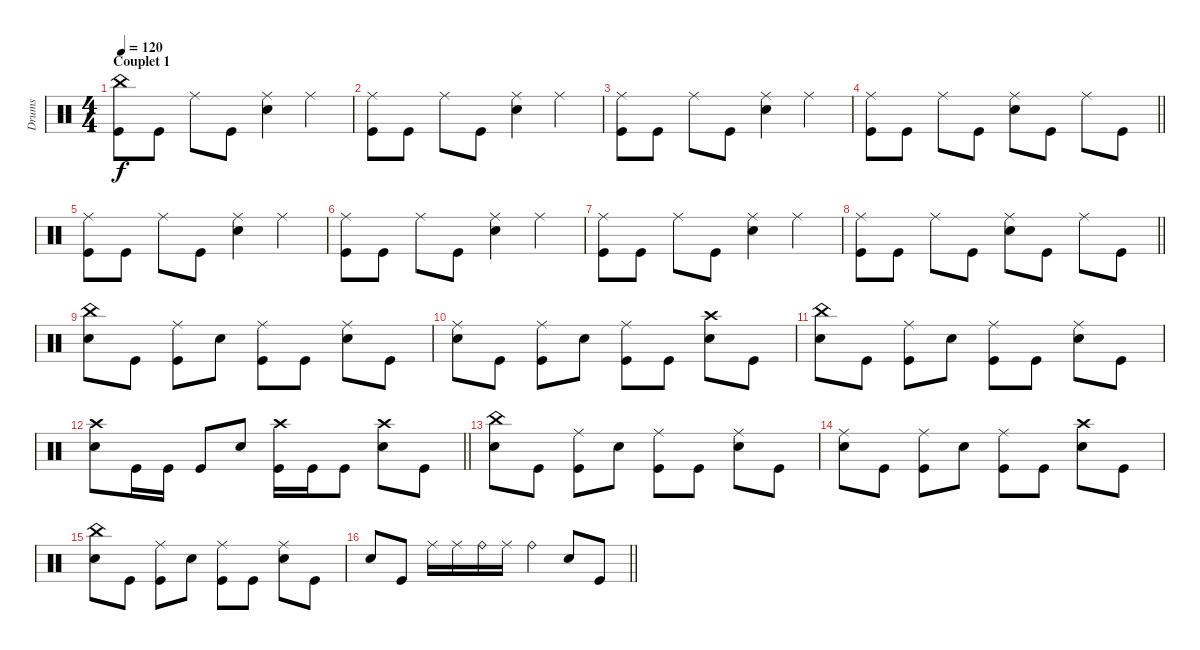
\track ("Drums" "Drums") {instrument percussion}
\staff {score}
\articulation defaults
\ts (4 4)
\section ("" "Couplet 1")
\tempo 120
\clef neutral
\ks c
("China (hit)" "Kick (hit)").8{dy f} "Kick (hit)".8 "Ride (middle)".8 "Kick (hit)".8 ("Ride (middle)" "Electric Snare (hit)").4 "Ride (middle)".4 |
("Ride (middle)" "Kick (hit)").8 "Kick (hit)".8 "Ride (middle)".8 "Kick (hit)".8 ("Ride (middle)" "Electric Snare (hit)").4 "Ride (middle)".4 |
("Ride (middle)" "Kick (hit)").8 "Kick (hit)".8 "Ride (middle)".8 "Kick (hit)".8 ("Ride (middle)" "Electric Snare (hit)").4 "Ride (middle)".4 |
\barLineRight lightlight
("Ride (middle)" "Kick (hit)").8 "Kick (hit)".8 "Ride (middle)".8 "Kick (hit)".8 ("Ride (middle)" "Electric Snare (hit)").8 "Kick (hit)".8 "Ride (middle)".8 "Kick (hit)".8 |
("Ride (middle)" "Kick (hit)").8 "Kick (hit)".8 "Ride (middle)".8 "Kick (hit)".8 ("Ride (middle)" "Electric Snare (hit)").4 "Ride (middle)".4 |
("Ride (middle)" "Kick (hit)").8 "Kick (hit)".8 "Ride (middle)".8 "Kick (hit)".8 ("Ride (middle)" "Electric Snare (hit)").4 "Ride (middle)".4 |
("Ride (middle)" "Kick (hit)").8 "Kick (hit)".8 "Ride (middle)".8 "Kick (hit)".8 ("Ride (middle)" "Electric Snare (hit)").4 "Ride (middle)".4 |
\barLineRight lightlight
("Ride (middle)" "Kick (hit)").8 "Kick (hit)".8 "Ride (middle)".8 "Kick (hit)".8 ("Ride (middle)" "Electric Snare (hit)").8 "Kick (hit)".8 "Ride (middle)".8 "Kick (hit)".8 |
("China (hit)" "Electric Snare (hit)").8 "Kick (hit)".8 ("Ride (middle)" "Kick (hit)").8 "Electric Snare (hit)".8 ("Ride (middle)" "Kick (hit)").8 "Kick (hit)".8 ("Ride (middle)" "Electric Snare (hit)").8 "Kick (hit)".8 |
("Ride (middle)" "Electric Snare (hit)").8 "Kick (hit)".8 ("Ride (middle)" "Kick (hit)").8 "Electric Snare (hit)".8 ("Ride (middle)" "Kick (hit)").8 "Kick (hit)".8 ("Crash high (hit)" "Electric Snare (hit)").8 "Kick (hit)".8 |
("China (hit)" "Electric Snare (hit)").8 "Kick (hit)".8 ("Ride (middle)" "Kick (hit)").8 "Electric Snare (hit)".8 ("Ride (middle)" "Kick (hit)").8 "Kick (hit)".8 ("Ride (middle)" "Electric Snare (hit)").8 "Kick (hit)".8 |
\barLineRight lightlight
("Crash high (hit)" "Electric Snare (hit)").8 "Kick (hit)".16 "Kick (hit)".16 "Kick (hit)".8 "Electric Snare (hit)".8 ("Crash high (hit)" "Kick (hit)").16 "Kick (hit)".16 "Kick (hit)".8 ("Crash high (hit)" "Electric Snare (hit)").8 "Kick (hit)".8 |
("China (hit)" "Electric Snare (hit)").8 "Kick (hit)".8 ("Ride (middle)" "Kick (hit)").8 "Electric Snare (hit)".8 ("Ride (middle)" "Kick (hit)").8 "Kick (hit)".8 ("Ride (middle)" "Electric Snare (hit)").8 "Kick (hit)".8 |
("Ride (middle)" "Electric Snare (hit)").8 "Kick (hit)".8 ("Ride (middle)" "Kick (hit)").8 "Electric Snare (hit)".8 ("Ride (middle)" "Kick (hit)").8 "Kick (hit)".8 ("Crash high (hit)" "Electric Snare (hit)").8 "Kick (hit)".8 |
("China (hit)" "Electric Snare (hit)").8 "Kick (hit)".8 ("Ride (middle)" "Kick (hit)").8 "Electric Snare (hit)".8 ("Ride (middle)" "Kick (hit)").8 "Kick (hit)".8 ("Ride (middle)" "Electric Snare (hit)").8 "Kick (hit)".8 |
\barLineRight lightlight "Electric Snare (hit)".8 "Kick (hit)".8 "Ride (middle)".16 "Ride (middle)".16 "Ride (bell)".16 "Ride (middle)".16 "Ride (bell)".4 "Electric Snare (hit)".8 "Kick (hit)".8
